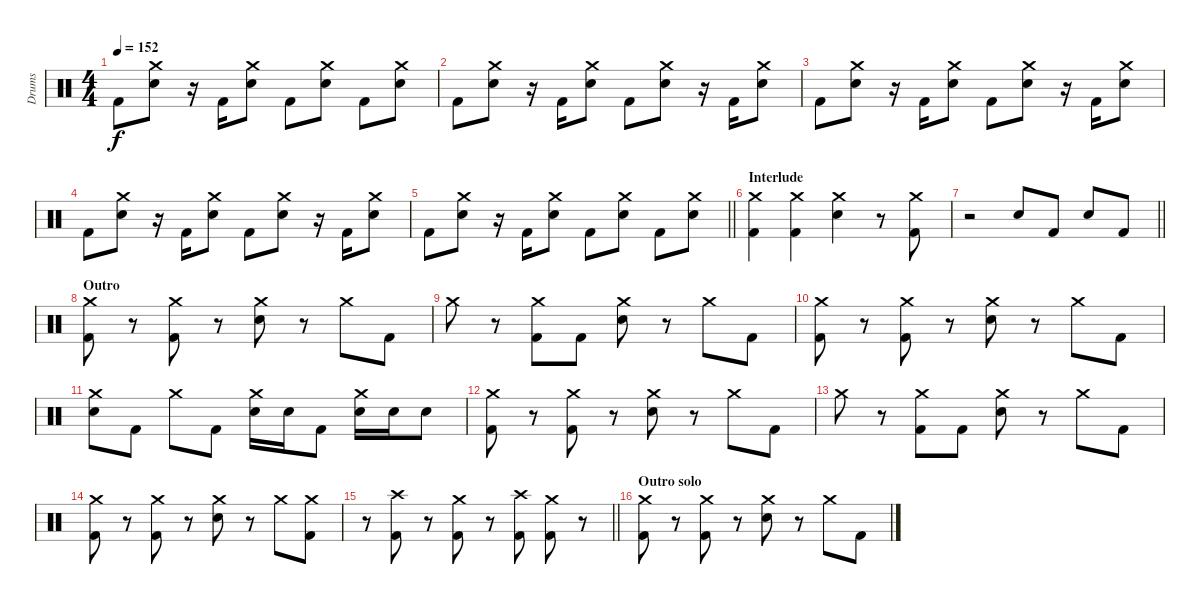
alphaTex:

\track ("Drums" "Drums") {instrument percussion}
\staff
\articulation defaults
\ts (4 4)
\tempo 152
\clef neutral
\ks c "Kick (hit) 2".8{dy f}
("Crash medium (hit)" "Electric Snare (hit)").8 r.16 "Kick (hit) 2".16 ("Crash medium (hit)" "Electric Snare (hit)").8 "Kick (hit) 2".8 ("Crash medium (hit)" "Electric Snare (hit)").8 "Kick (hit) 2".8 ("Crash medium (hit)" "Electric Snare (hit)").8 |
"Kick (hit) 2".8 ("Crash medium (hit)" "Electric Snare (hit)").8 r.16 "Kick (hit) 2".16 ("Crash medium (hit)" "Electric Snare (hit)").8 "Kick (hit) 2".8 ("Crash medium (hit)" "Electric Snare (hit)").8 r.16 "Kick (hit) 2".16 ("Crash medium (hit)" "Electric Snare (hit)").8 |
"Kick (hit) 2".8 ("Crash medium (hit)" "Electric Snare (hit)").8 r.16 "Kick (hit) 2".16 ("Crash medium (hit)" "Electric Snare (hit)").8 "Kick (hit) 2".8 ("Crash medium (hit)" "Electric Snare (hit)").8 r.16 "Kick (hit) 2".16 ("Crash medium (hit)" "Electric Snare (hit)").8 |
"Kick (hit) 2".8 ("Crash medium (hit)" "Electric Snare (hit)").8 r.16 "Kick (hit) 2".16 ("Crash medium (hit)" "Electric Snare (hit)").8 "Kick (hit) 2".8 ("Crash medium (hit)" "Electric Snare (hit)").8 r.16 "Kick (hit) 2".16 ("Crash medium (hit)" "Electric Snare (hit)").8 |
\barLineRight lightlight "Kick (hit) 2".8
("Crash medium (hit)" "Electric Snare (hit)").8 r.16 "Kick (hit) 2".16 ("Crash medium (hit)" "Electric Snare (hit)").8 "Kick (hit) 2".8 ("Crash medium (hit)" "Electric Snare (hit)").8 "Kick (hit) 2".8 ("Crash medium (hit)" "Electric Snare (hit)").8 |
\section ("" "Interlude")
("Crash medium (hit)" "Kick (hit) 2").4 ("Crash medium (hit)" "Kick (hit) 2").4 ("Crash medium (hit)" "Electric Snare (hit)").4 r.8 ("Crash medium (hit)" "Kick (hit) 2").8 |
\barLineRight lightlight
r.2 "Electric Snare (hit)".8 "Kick (hit) 2".8 "Electric Snare (hit)".8 "Kick (hit) 2".8 |
\section ("" "Outro")
("Crash medium (hit)" "Kick (hit) 2").8 r.8 ("Crash medium (hit)" "Kick (hit) 2").8 r.8 ("Crash medium (hit)" "Electric Snare (hit)").8 r.8 "Crash medium (hit)".8 "Kick (hit) 2".8 |
"Crash medium (hit)".8 r.8 ("Crash medium (hit)" "Kick (hit) 2").8 "Kick (hit) 2".8 ("Crash medium (hit)" "Electric Snare (hit)").8 r.8 "Crash medium (hit)".8 "Kick (hit) 2".8 |
("Crash medium (hit)" "Kick (hit) 2").8 r.8 ("Crash medium (hit)" "Kick (hit) 2").8 r.8 ("Crash medium (hit)" "Electric Snare (hit)").8 r.8 "Crash medium (hit)".8 "Kick (hit) 2".8 |
("Crash medium (hit)" "Electric Snare (hit)").8 "Kick (hit) 2".8 "Crash medium (hit)".8 "Kick (hit) 2".8 ("Crash medium (hit)" "Electric Snare (hit)").16 "Electric Snare (hit)".16 "Kick (hit) 2".8 ("Crash medium (hit)" "Electric Snare (hit)").16 "Electric Snare (hit)".16 "Electric Snare (hit)".8 |
("Crash medium (hit)" "Kick (hit) 2").8 r.8 ("Crash medium (hit)" "Kick (hit) 2").8 r.8 ("Crash medium (hit)" "Electric Snare (hit)").8 r.8 "Crash medium (hit)".8 "Kick (hit) 2".8 |
"Crash medium (hit)".8 r.8 ("Crash medium (hit)" "Kick (hit) 2").8 "Kick (hit) 2".8 ("Crash medium (hit)" "Electric Snare (hit)").8 r.8 "Crash medium (hit)".8 "Kick (hit) 2".8 |
("Crash medium (hit)" "Kick (hit) 2").8 r.8 ("Crash medium (hit)" "Kick (hit) 2").8 r.8 ("Crash medium (hit)" "Electric Snare (hit)").8 r.8 "Crash medium (hit)".8 ("Crash medium (hit)" "Kick (hit) 2").8 |
\barLineRight lightlight
r.8 ("Crash high (hit)" "Kick (hit) 2").8 r.8 ("Crash medium (hit)" "Kick (hit) 2").8 r.8 ("Crash high (hit)" "Kick (hit) 2").8 ("Crash medium (hit)" "Kick (hit) 2").8 r.8 |
\section ("" "Outro solo")
("Crash medium (hit)" "Kick (hit) 2").8 r.8 ("Crash medium (hit)" "Kick (hit) 2").8 r.8 ("Crash medium (hit)" "Electric Snare (hit)").8 r.8 "Crash medium (hit)".8 "Kick (hit) 2".8
